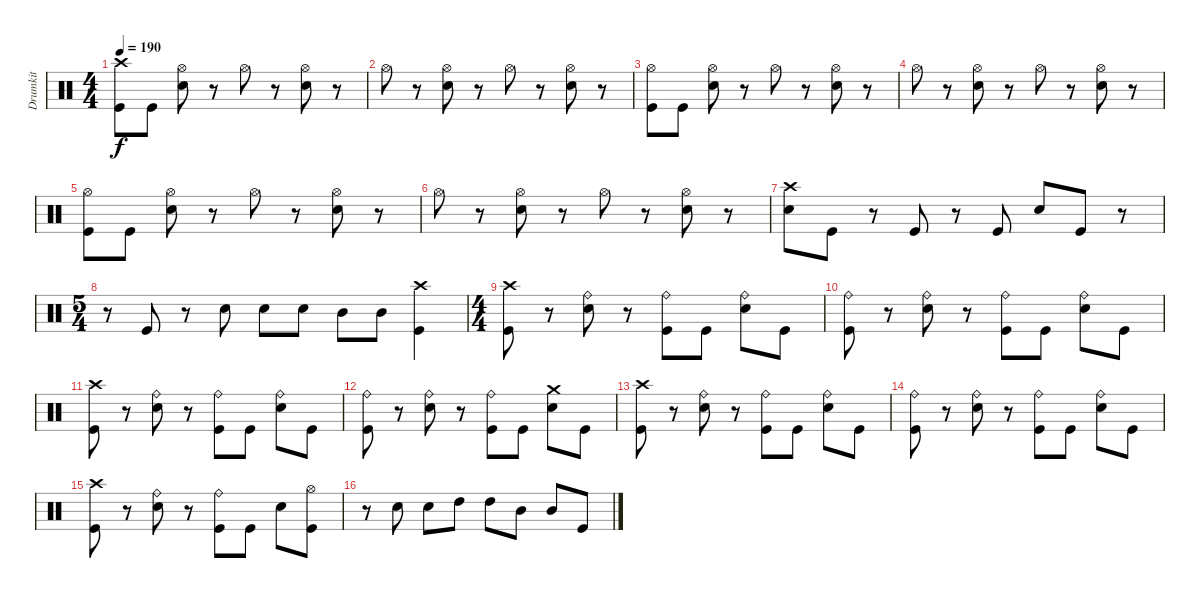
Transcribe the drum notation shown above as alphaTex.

\track ("Drumkit" "Drumkit") {instrument percussion}
\staff {score}
\articulation defaults
\ts (4 4)
\tempo 190
\clef neutral
\ks c
("Crash high (hit)" "Kick (hit)").8{dy f} "Kick (hit)".8 ("Hi-Hat (open)" "Snare (hit) 2").8 r.8 "Hi-Hat (open)".8 r.8 ("Hi-Hat (open)" "Snare (hit) 2").8 r.8 |
"Hi-Hat (open)".8 r.8 ("Hi-Hat (open)" "Snare (hit) 2").8 r.8 "Hi-Hat (open)".8 r.8 ("Hi-Hat (open)" "Snare (hit) 2").8 r.8 |
("Hi-Hat (open)" "Kick (hit)").8 "Kick (hit)".8 ("Hi-Hat (open)" "Snare (hit) 2").8 r.8 "Hi-Hat (open)".8 r.8 ("Hi-Hat (open)" "Snare (hit) 2").8 r.8 |
"Hi-Hat (open)".8 r.8 ("Hi-Hat (open)" "Snare (hit) 2").8 r.8 "Hi-Hat (open)".8 r.8 ("Hi-Hat (open)" "Snare (hit) 2").8 r.8 |
("Hi-Hat (open)" "Kick (hit)").8 "Kick (hit)".8 ("Hi-Hat (open)" "Snare (hit) 2").8 r.8 "Hi-Hat (open)".8 r.8 ("Hi-Hat (open)" "Snare (hit) 2").8 r.8 |
"Hi-Hat (open)".8 r.8 ("Hi-Hat (open)" "Snare (hit) 2").8 r.8 "Hi-Hat (open)".8 r.8 ("Hi-Hat (open)" "Snare (hit) 2").8 r.8 |
("Crash high (hit)" "Snare (hit) 2").8 "Kick (hit)".8 r.8 "Kick (hit)".8 r.8 "Kick (hit)".8 "Snare (hit) 2".8 "Kick (hit)".8 r.8 |
\ts (5 4)
r.8 "Kick (hit)".8 r.8 "Snare (hit) 2".8 "Snare (hit) 2".8 "Snare (hit) 2".8 "Mid Tom (hit)".8 "Mid Tom (hit)".8 ("Crash high (hit)" "Kick (hit)").4 |
\ts (4 4)
("Crash high (hit)" "Kick (hit)").8 r.8 ("Ride (bell)" "Snare (hit) 2").8 r.8 ("Ride (bell)" "Kick (hit)").8 "Kick (hit)".8 ("Ride (bell)" "Snare (hit) 2").8 "Kick (hit)".8 |
("Ride (bell)" "Kick (hit)").8 r.8 ("Ride (bell)" "Snare (hit) 2").8 r.8 ("Ride (bell)" "Kick (hit)").8 "Kick (hit)".8 ("Ride (bell)" "Snare (hit) 2").8 "Kick (hit)".8 |
("Crash high (hit)" "Kick (hit)").8 r.8 ("Ride (bell)" "Snare (hit) 2").8 r.8 ("Ride (bell)" "Kick (hit)").8 "Kick (hit)".8 ("Ride (bell)" "Snare (hit) 2").8 "Kick (hit)".8 |
("Ride (bell)" "Kick (hit)").8 r.8 ("Ride (bell)" "Snare (hit) 2").8 r.8 ("Ride (bell)" "Kick (hit)").8 "Kick (hit)".8 ("Crash medium (hit)" "Snare (hit) 2").8 "Kick (hit)".8 |
("Crash high (hit)" "Kick (hit)").8 r.8 ("Ride (bell)" "Snare (hit) 2").8 r.8 ("Ride (bell)" "Kick (hit)").8 "Kick (hit)".8 ("Ride (bell)" "Snare (hit) 2").8 "Kick (hit)".8 |
("Ride (bell)" "Kick (hit)").8 r.8 ("Ride (bell)" "Snare (hit) 2").8 r.8 ("Ride (bell)" "Kick (hit)").8 "Kick (hit)".8 ("Ride (bell)" "Snare (hit) 2").8 "Kick (hit)".8 |
("Crash high (hit)" "Kick (hit)").8 r.8 ("Ride (bell)" "Snare (hit) 2").8 r.8 ("Ride (bell)" "Kick (hit)").8 "Kick (hit)".8 "Snare (hit) 2".8 ("Hi-Hat (open)" "Kick (hit)").8 |
r.8 "Snare (hit) 2".8 "Snare (hit) 2".8 "High Tom (hit)".8 "High Tom (hit)".8 "Mid Tom (hit)".8 "Mid Tom (hit)".8 "Kick (hit)".8
